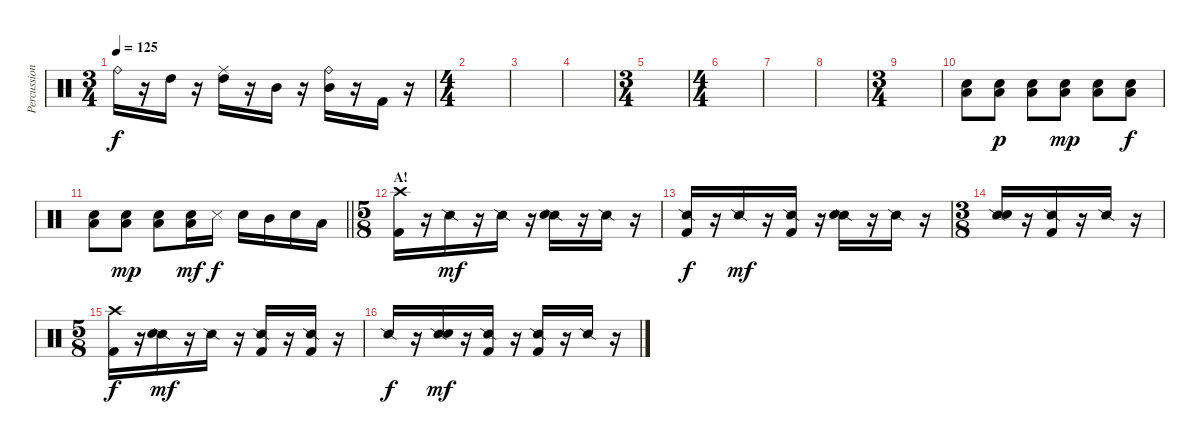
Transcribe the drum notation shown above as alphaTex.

\track ("Percussion" "Percussion") {instrument percussion}
\staff {score}
\articulation defaults
\ts (3 4)
\tempo 125
\clef neutral
\ks c "Ride (bell)".16{dy f}
r.16 "High Tom (hit)".16 r.16 ("Ride (middle)" "High Tom (hit)").16 r.16 "Mid Tom (hit)".16 r.16 ("Ride (bell)" "Mid Tom (hit)").16 r.16 "Kick (hit) 2".16 r.16 |
\ts (4 4)
|
|
|
\ts (3 4)
|
\ts (4 4)
|
|
|
\ts (3 4)
|
("Low Tom (hit)" "Snare (hit) 2").8 ("Low Tom (hit)" "Snare (hit) 2").8{dy p} ("Low Tom (hit)" "Snare (hit) 2").8 ("Low Tom (hit)" "Snare (hit) 2").8{dy mp} ("Low Tom (hit)" "Snare (hit) 2").8 ("Low Tom (hit)" "Snare (hit) 2").8{dy f} |
\barLineRight lightlight
("Low Tom (hit)" "Snare (hit) 2").8 ("Low Tom (hit)" "Snare (hit) 2").8{dy mp} ("Low Tom (hit)" "Snare (hit) 2").8 ("Low Tom (hit)" "Snare (hit) 2").16{dy mf} "Metronome (hit)".16{dy f} "Snare (hit) 2".16 "Mid Tom (hit)".16 "Snare (hit) 2".16 "Low Tom (hit)".16 |
\ts (5 8)
\section ("" "A!")
("Crash high (hit)" "Kick (hit) 2").16 r.16 "Snare (side stick) 2".16{dy mf} r.16 "Snare (side stick) 2".16 r.16 ("Snare (side stick) 2" "Snare (hit) 2").16 r.16 "Snare (side stick) 2".16 r.16 |
("Snare (side stick) 2" "Kick (hit) 2").16{dy f} r.16 "Snare (side stick) 2".16{dy mf} r.16 ("Snare (side stick) 2" "Kick (hit) 2").16 r.16 ("Snare (side stick) 2" "Snare (hit) 2").16 r.16 "Snare (side stick) 2".16 r.16 |
\ts (3 8)
("Snare (side stick) 2" "Snare (hit) 2").16 r.16 ("Snare (side stick) 2" "Kick (hit) 2").16 r.16 "Snare (side stick) 2".16 r.16 |
\ts (5 8)
("Crash high (hit)" "Kick (hit) 2").16{dy f} r.16 ("Snare (side stick) 2" "Snare (hit) 2").16{dy mf} r.16 "Snare (side stick) 2".16 r.16 ("Snare (side stick) 2" "Kick (hit) 2").16 r.16 ("Snare (side stick) 2" "Kick (hit) 2").16 r.16 |
"Snare (side stick) 2".16{dy f} r.16 ("Snare (side stick) 2" "Snare (hit) 2").16{dy mf} r.16 ("Snare (side stick) 2" "Kick (hit) 2").16 r.16 ("Snare (side stick) 2" "Kick (hit) 2").16 r.16 "Snare (side stick) 2".16 r.16
